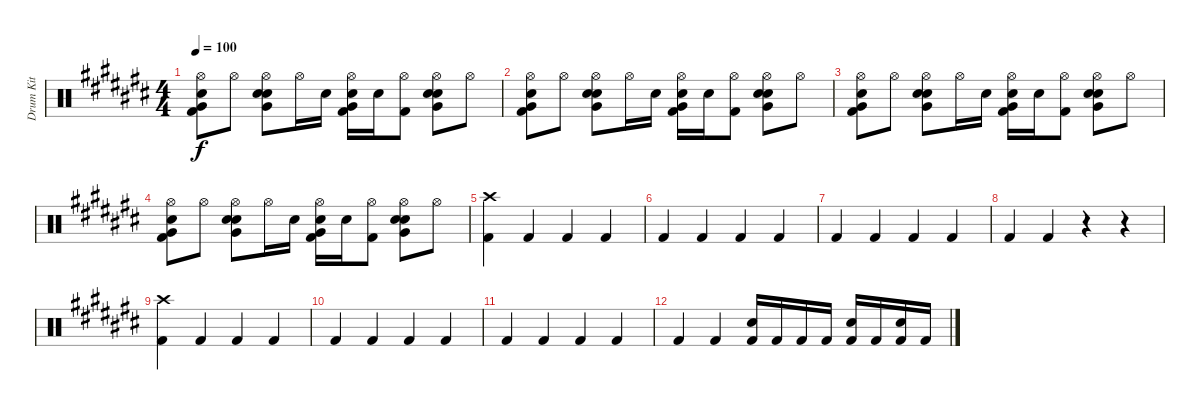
\track ("Drum Kit" "Drum Kit") {instrument percussion}
\staff {score}
\articulation defaults
\ts (4 4)
\tempo 100
\clef neutral
\ks c#
("Hi-Hat (open)" "Electric Snare (hit)" "Very Low Tom (hit)" "Kick (hit) 2").8{dy f} "Hi-Hat (open)".8 ("Hi-Hat (open)" "Electric Snare (hit)" "Very Low Tom (hit)" "Snare (hit) 2").8 "Hi-Hat (open)".16 "Snare (hit) 2".16 ("Hi-Hat (open)" "Electric Snare (hit)" "Very Low Tom (hit)" "Kick (hit) 2").16 "Snare (hit) 2".16 ("Hi-Hat (open)" "Kick (hit) 2").8 ("Hi-Hat (open)" "Electric Snare (hit)" "Very Low Tom (hit)" "Snare (hit) 2").8 "Hi-Hat (open)".8 |
("Hi-Hat (open)" "Electric Snare (hit)" "Very Low Tom (hit)" "Kick (hit) 2").8 "Hi-Hat (open)".8 ("Hi-Hat (open)" "Electric Snare (hit)" "Very Low Tom (hit)" "Snare (hit) 2").8 "Hi-Hat (open)".16 "Snare (hit) 2".16 ("Hi-Hat (open)" "Electric Snare (hit)" "Very Low Tom (hit)" "Kick (hit) 2").16 "Snare (hit) 2".16 ("Hi-Hat (open)" "Kick (hit) 2").8 ("Hi-Hat (open)" "Electric Snare (hit)" "Very Low Tom (hit)" "Snare (hit) 2").8 "Hi-Hat (open)".8 |
("Hi-Hat (open)" "Electric Snare (hit)" "Very Low Tom (hit)" "Kick (hit) 2").8 "Hi-Hat (open)".8 ("Hi-Hat (open)" "Electric Snare (hit)" "Very Low Tom (hit)" "Snare (hit) 2").8 "Hi-Hat (open)".16 "Snare (hit) 2".16 ("Hi-Hat (open)" "Electric Snare (hit)" "Very Low Tom (hit)" "Kick (hit) 2").16 "Snare (hit) 2".16 ("Hi-Hat (open)" "Kick (hit) 2").8 ("Hi-Hat (open)" "Electric Snare (hit)" "Very Low Tom (hit)" "Snare (hit) 2").8 "Hi-Hat (open)".8 |
("Hi-Hat (open)" "Electric Snare (hit)" "Very Low Tom (hit)" "Kick (hit) 2").8 "Hi-Hat (open)".8 ("Hi-Hat (open)" "Electric Snare (hit)" "Very Low Tom (hit)" "Snare (hit) 2").8 "Hi-Hat (open)".16 "Snare (hit) 2".16 ("Hi-Hat (open)" "Electric Snare (hit)" "Very Low Tom (hit)" "Kick (hit) 2").16 "Snare (hit) 2".16 ("Hi-Hat (open)" "Kick (hit) 2").8 ("Hi-Hat (open)" "Electric Snare (hit)" "Very Low Tom (hit)" "Snare (hit) 2").8 "Hi-Hat (open)".8 |
("Crash high (hit)" "Kick (hit) 2").4 "Kick (hit) 2".4 "Kick (hit) 2".4 "Kick (hit) 2".4 |
"Kick (hit) 2".4 "Kick (hit) 2".4 "Kick (hit) 2".4 "Kick (hit) 2".4 |
"Kick (hit) 2".4 "Kick (hit) 2".4 "Kick (hit) 2".4 "Kick (hit) 2".4 |
"Kick (hit) 2".4 "Kick (hit) 2".4 r.4 r.4 |
("Crash high (hit)" "Kick (hit) 2").4 "Kick (hit) 2".4 "Kick (hit) 2".4 "Kick (hit) 2".4 |
"Kick (hit) 2".4 "Kick (hit) 2".4 "Kick (hit) 2".4 "Kick (hit) 2".4 |
"Kick (hit) 2".4 "Kick (hit) 2".4 "Kick (hit) 2".4 "Kick (hit) 2".4 |
"Kick (hit) 2".4 "Kick (hit) 2".4 ("Snare (hit) 2" "Kick (hit) 2").16 "Kick (hit) 2".16 "Kick (hit) 2".16 "Kick (hit) 2".16 ("Snare (hit) 2" "Kick (hit) 2").16 "Kick (hit) 2".16 ("Snare (hit) 2" "Kick (hit) 2").16 "Kick (hit) 2".16
